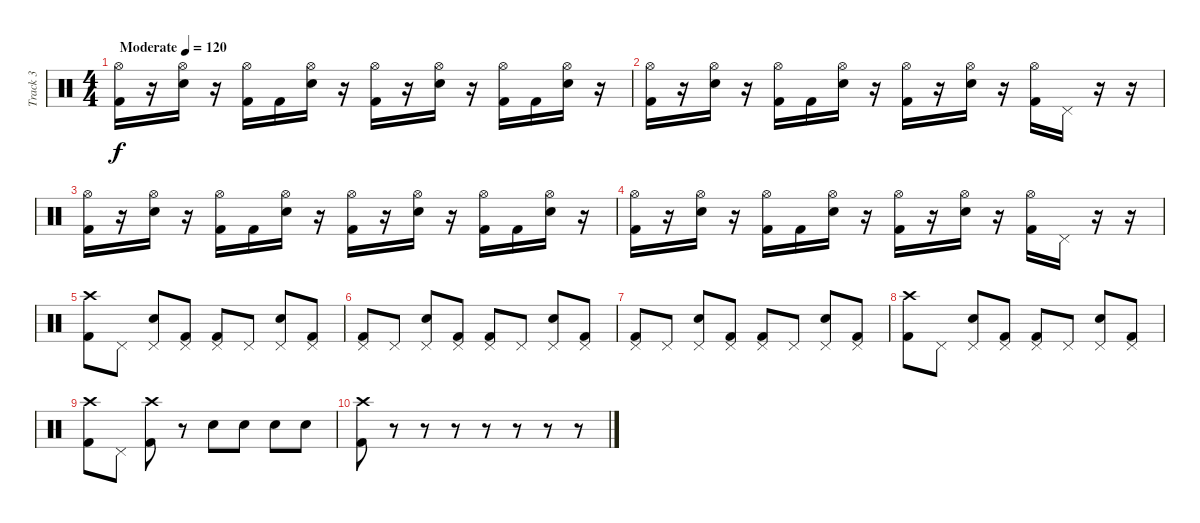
\track ("Track 3" "Track 3") {instrument percussion}
\staff {score}
\articulation defaults
\ts (4 4)
\tempo (120 "Moderate")
\clef neutral
\ks c
("Kick (hit) 2" "Hi-Hat (open)").16{dy f} r.16 ("Electric Snare (hit)" "Hi-Hat (open)").16 r.16 ("Kick (hit) 2" "Hi-Hat (open)").16 "Kick (hit) 2".16 ("Electric Snare (hit)" "Hi-Hat (open)").16 r.16 ("Kick (hit) 2" "Hi-Hat (open)").16 r.16 ("Electric Snare (hit)" "Hi-Hat (open)").16 r.16 ("Kick (hit) 2" "Hi-Hat (open)").16 "Kick (hit) 2".16 ("Electric Snare (hit)" "Hi-Hat (open)").16 r.16 |
("Kick (hit) 2" "Hi-Hat (open)").16 r.16 ("Electric Snare (hit)" "Hi-Hat (open)").16 r.16 ("Kick (hit) 2" "Hi-Hat (open)").16 "Kick (hit) 2".16 ("Electric Snare (hit)" "Hi-Hat (open)").16 r.16 ("Kick (hit) 2" "Hi-Hat (open)").16 r.16 ("Electric Snare (hit)" "Hi-Hat (open)").16 r.16 ("Kick (hit) 2" "Hi-Hat (open)").16 "Pedal Hi-Hat (hit)".16 r.16 r.16 |
("Kick (hit) 2" "Hi-Hat (open)").16 r.16 ("Electric Snare (hit)" "Hi-Hat (open)").16 r.16 ("Kick (hit) 2" "Hi-Hat (open)").16 "Kick (hit) 2".16 ("Electric Snare (hit)" "Hi-Hat (open)").16 r.16 ("Kick (hit) 2" "Hi-Hat (open)").16 r.16 ("Electric Snare (hit)" "Hi-Hat (open)").16 r.16 ("Kick (hit) 2" "Hi-Hat (open)").16 "Kick (hit) 2".16 ("Electric Snare (hit)" "Hi-Hat (open)").16 r.16 |
("Kick (hit) 2" "Hi-Hat (open)").16 r.16 ("Electric Snare (hit)" "Hi-Hat (open)").16 r.16 ("Kick (hit) 2" "Hi-Hat (open)").16 "Kick (hit) 2".16 ("Electric Snare (hit)" "Hi-Hat (open)").16 r.16 ("Kick (hit) 2" "Hi-Hat (open)").16 r.16 ("Electric Snare (hit)" "Hi-Hat (open)").16 r.16 ("Kick (hit) 2" "Hi-Hat (open)").16 "Pedal Hi-Hat (hit)".16 r.16 r.16 |
("Kick (hit) 2" "Crash high (hit)").8 "Pedal Hi-Hat (hit)".8 ("Electric Snare (hit)" "Pedal Hi-Hat (hit)").8 ("Kick (hit) 2" "Pedal Hi-Hat (hit)").8 ("Pedal Hi-Hat (hit)" "Kick (hit) 2").8 "Pedal Hi-Hat (hit)".8 ("Electric Snare (hit)" "Pedal Hi-Hat (hit)").8 ("Kick (hit) 2" "Pedal Hi-Hat (hit)").8 |
("Kick (hit) 2" "Pedal Hi-Hat (hit)").8 "Pedal Hi-Hat (hit)".8 ("Electric Snare (hit)" "Pedal Hi-Hat (hit)").8 ("Kick (hit) 2" "Pedal Hi-Hat (hit)").8 ("Pedal Hi-Hat (hit)" "Kick (hit) 2").8 "Pedal Hi-Hat (hit)".8 ("Electric Snare (hit)" "Pedal Hi-Hat (hit)").8 ("Kick (hit) 2" "Pedal Hi-Hat (hit)").8 |
("Kick (hit) 2" "Pedal Hi-Hat (hit)").8 "Pedal Hi-Hat (hit)".8 ("Electric Snare (hit)" "Pedal Hi-Hat (hit)").8 ("Kick (hit) 2" "Pedal Hi-Hat (hit)").8 ("Pedal Hi-Hat (hit)" "Kick (hit) 2").8 "Pedal Hi-Hat (hit)".8 ("Electric Snare (hit)" "Pedal Hi-Hat (hit)").8 ("Kick (hit) 2" "Pedal Hi-Hat (hit)").8 |
("Kick (hit) 2" "Crash high (hit)").8 "Pedal Hi-Hat (hit)".8 ("Electric Snare (hit)" "Pedal Hi-Hat (hit)").8 ("Kick (hit) 2" "Pedal Hi-Hat (hit)").8 ("Pedal Hi-Hat (hit)" "Kick (hit) 2").8 "Pedal Hi-Hat (hit)".8 ("Electric Snare (hit)" "Pedal Hi-Hat (hit)").8 ("Kick (hit) 2" "Pedal Hi-Hat (hit)").8 |
("Kick (hit) 2" "Crash high (hit)").8 "Pedal Hi-Hat (hit)".8 ("Kick (hit) 2" "Crash high (hit)").8 r.8 "Electric Snare (hit)".8 "Electric Snare (hit)".8 "Electric Snare (hit)".8 "Electric Snare (hit)".8 |
("Kick (hit) 2" "Crash high (hit)").8 r.8 r.8 r.8 r.8 r.8 r.8 r.8
